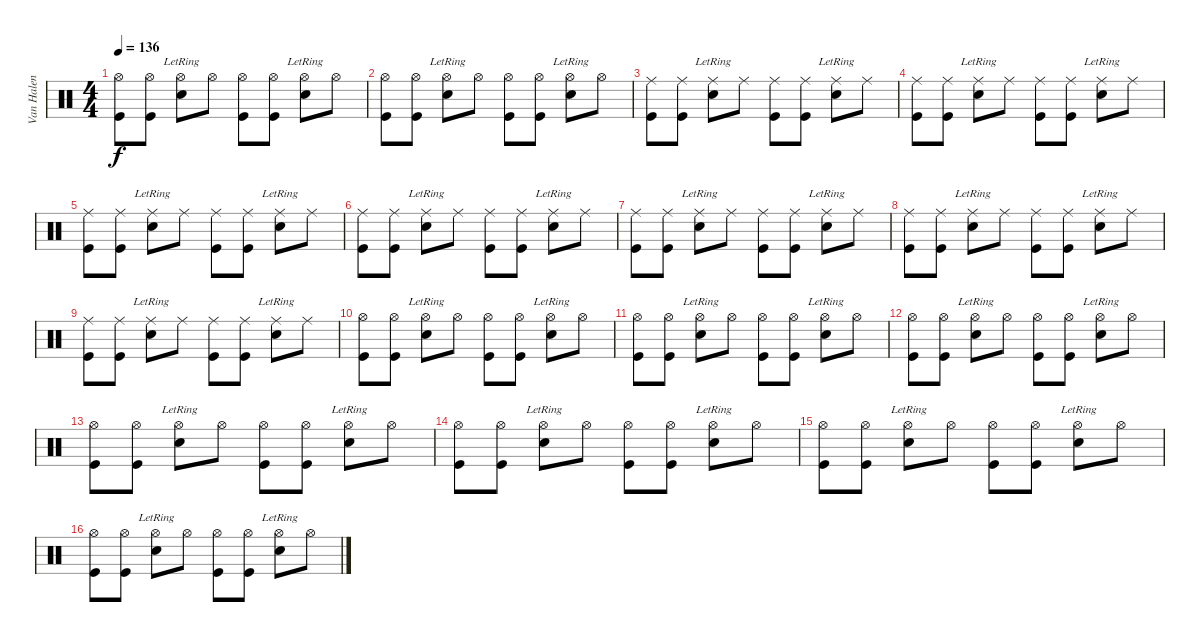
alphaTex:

\track ("Van Halen" "Van Halen") {instrument percussion}
\staff {score}
\articulation defaults
\ts (4 4)
\tempo 136
\clef neutral
\ks c
("Kick (hit)" "Hi-Hat (open)").8{dy f} ("Kick (hit)" "Hi-Hat (open)").8 ("Snare (hit) 2"{lr} "Hi-Hat (open)").8 "Hi-Hat (open)".8 ("Kick (hit)" "Hi-Hat (open)").8 ("Kick (hit)" "Hi-Hat (open)").8 ("Snare (hit) 2"{lr} "Hi-Hat (open)").8 "Hi-Hat (open)".8 |
("Kick (hit)" "Hi-Hat (open)").8 ("Kick (hit)" "Hi-Hat (open)").8 ("Snare (hit) 2"{lr} "Hi-Hat (open)").8 "Hi-Hat (open)".8 ("Kick (hit)" "Hi-Hat (open)").8 ("Kick (hit)" "Hi-Hat (open)").8 ("Snare (hit) 2"{lr} "Hi-Hat (open)").8 "Hi-Hat (open)".8 |
("Kick (hit)" "Ride (middle)").8 ("Kick (hit)" "Ride (middle)").8 ("Snare (hit) 2"{lr} "Ride (middle)").8 "Ride (middle)".8 ("Kick (hit)" "Ride (middle)").8 ("Kick (hit)" "Ride (middle)").8 ("Snare (hit) 2"{lr} "Ride (middle)").8 "Ride (middle)".8 |
("Kick (hit)" "Ride (middle)").8 ("Kick (hit)" "Ride (middle)").8 ("Snare (hit) 2"{lr} "Ride (middle)").8 "Ride (middle)".8 ("Kick (hit)" "Ride (middle)").8 ("Kick (hit)" "Ride (middle)").8 ("Snare (hit) 2"{lr} "Ride (middle)").8 "Ride (middle)".8 |
("Kick (hit)" "Ride (middle)").8 ("Kick (hit)" "Ride (middle)").8 ("Snare (hit) 2"{lr} "Ride (middle)").8 "Ride (middle)".8 ("Kick (hit)" "Ride (middle)").8 ("Kick (hit)" "Ride (middle)").8 ("Snare (hit) 2"{lr} "Ride (middle)").8 "Ride (middle)".8 |
("Kick (hit)" "Ride (middle)").8 ("Kick (hit)" "Ride (middle)").8 ("Snare (hit) 2"{lr} "Ride (middle)").8 "Ride (middle)".8 ("Kick (hit)" "Ride (middle)").8 ("Kick (hit)" "Ride (middle)").8 ("Snare (hit) 2"{lr} "Ride (middle)").8 "Ride (middle)".8 |
("Kick (hit)" "Ride (middle)").8 ("Kick (hit)" "Ride (middle)").8 ("Snare (hit) 2"{lr} "Ride (middle)").8 "Ride (middle)".8 ("Kick (hit)" "Ride (middle)").8 ("Kick (hit)" "Ride (middle)").8 ("Snare (hit) 2"{lr} "Ride (middle)").8 "Ride (middle)".8 |
("Kick (hit)" "Ride (middle)").8 ("Kick (hit)" "Ride (middle)").8 ("Snare (hit) 2"{lr} "Ride (middle)").8 "Ride (middle)".8 ("Kick (hit)" "Ride (middle)").8 ("Kick (hit)" "Ride (middle)").8 ("Snare (hit) 2"{lr} "Ride (middle)").8 "Ride (middle)".8 |
("Kick (hit)" "Ride (middle)").8 ("Kick (hit)" "Ride (middle)").8 ("Snare (hit) 2"{lr} "Ride (middle)").8 "Ride (middle)".8 ("Kick (hit)" "Ride (middle)").8 ("Kick (hit)" "Ride (middle)").8 ("Snare (hit) 2"{lr} "Ride (middle)").8 "Ride (middle)".8 |
("Kick (hit)" "Hi-Hat (open)").8 ("Kick (hit)" "Hi-Hat (open)").8 ("Snare (hit) 2"{lr} "Hi-Hat (open)").8 "Hi-Hat (open)".8 ("Kick (hit)" "Hi-Hat (open)").8 ("Kick (hit)" "Hi-Hat (open)").8 ("Snare (hit) 2"{lr} "Hi-Hat (open)").8 "Hi-Hat (open)".8 |
("Kick (hit)" "Hi-Hat (open)").8 ("Kick (hit)" "Hi-Hat (open)").8 ("Snare (hit) 2"{lr} "Hi-Hat (open)").8 "Hi-Hat (open)".8 ("Kick (hit)" "Hi-Hat (open)").8 ("Kick (hit)" "Hi-Hat (open)").8 ("Snare (hit) 2"{lr} "Hi-Hat (open)").8 "Hi-Hat (open)".8 |
("Kick (hit)" "Hi-Hat (open)").8 ("Kick (hit)" "Hi-Hat (open)").8 ("Snare (hit) 2"{lr} "Hi-Hat (open)").8 "Hi-Hat (open)".8 ("Kick (hit)" "Hi-Hat (open)").8 ("Kick (hit)" "Hi-Hat (open)").8 ("Snare (hit) 2"{lr} "Hi-Hat (open)").8 "Hi-Hat (open)".8 |
("Kick (hit)" "Hi-Hat (open)").8 ("Kick (hit)" "Hi-Hat (open)").8 ("Snare (hit) 2"{lr} "Hi-Hat (open)").8 "Hi-Hat (open)".8 ("Kick (hit)" "Hi-Hat (open)").8 ("Kick (hit)" "Hi-Hat (open)").8 ("Snare (hit) 2"{lr} "Hi-Hat (open)").8 "Hi-Hat (open)".8 |
("Kick (hit)" "Hi-Hat (open)").8 ("Kick (hit)" "Hi-Hat (open)").8 ("Snare (hit) 2"{lr} "Hi-Hat (open)").8 "Hi-Hat (open)".8 ("Kick (hit)" "Hi-Hat (open)").8 ("Kick (hit)" "Hi-Hat (open)").8 ("Snare (hit) 2"{lr} "Hi-Hat (open)").8 "Hi-Hat (open)".8 |
("Kick (hit)" "Hi-Hat (open)").8 ("Kick (hit)" "Hi-Hat (open)").8 ("Snare (hit) 2"{lr} "Hi-Hat (open)").8 "Hi-Hat (open)".8 ("Kick (hit)" "Hi-Hat (open)").8 ("Kick (hit)" "Hi-Hat (open)").8 ("Snare (hit) 2"{lr} "Hi-Hat (open)").8 "Hi-Hat (open)".8 |
("Kick (hit)" "Hi-Hat (open)").8 ("Kick (hit)" "Hi-Hat (open)").8 ("Snare (hit) 2"{lr} "Hi-Hat (open)").8 "Hi-Hat (open)".8 ("Kick (hit)" "Hi-Hat (open)").8 ("Kick (hit)" "Hi-Hat (open)").8 ("Snare (hit) 2"{lr} "Hi-Hat (open)").8 "Hi-Hat (open)".8
